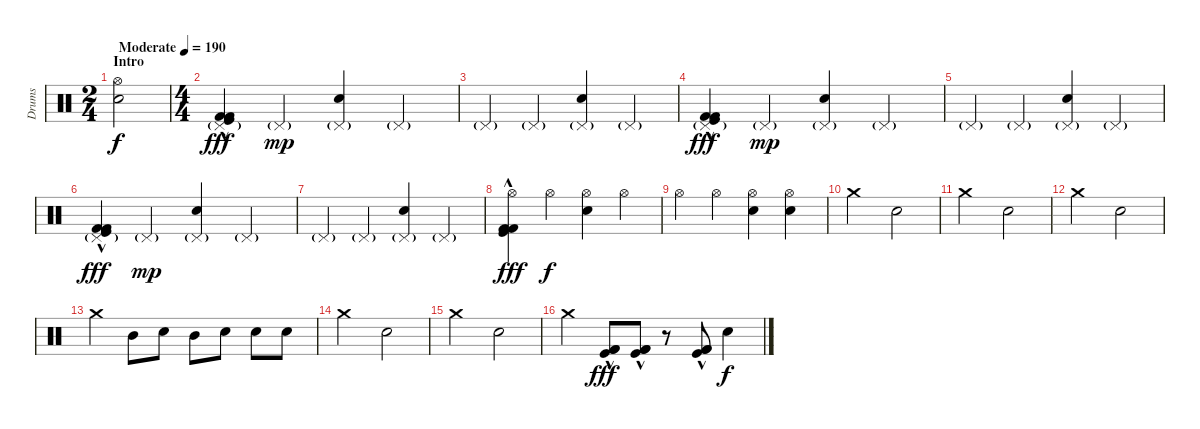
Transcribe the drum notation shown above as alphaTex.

\track ("Drums" "Drums") {instrument percussion}
\staff {score}
\articulation defaults
\ts (2 4)
\section ("" "Intro")
\tempo (190 "Moderate")
\clef neutral
\ks c
("Snare (hit) 2" "Hi-Hat (open)").2{dy f} |
\ts (4 4)
("Pedal Hi-Hat (hit)"{g} "Kick (hit) 2"{hac} "Kick (hit)"{hac} "Kick (hit) 2"{hac}).4{dy fff} "Pedal Hi-Hat (hit)"{g}.4{dy mp} ("Pedal Hi-Hat (hit)"{g} "Snare (hit) 2").4 "Pedal Hi-Hat (hit)"{g}.4 |
"Pedal Hi-Hat (hit)"{g}.4 "Pedal Hi-Hat (hit)"{g}.4 ("Pedal Hi-Hat (hit)"{g} "Snare (hit) 2").4 "Pedal Hi-Hat (hit)"{g}.4 |
("Pedal Hi-Hat (hit)"{g} "Kick (hit) 2"{hac} "Kick (hit)"{hac} "Kick (hit) 2"{hac}).4{dy fff} "Pedal Hi-Hat (hit)"{g}.4{dy mp} ("Pedal Hi-Hat (hit)"{g} "Snare (hit) 2").4 "Pedal Hi-Hat (hit)"{g}.4 |
"Pedal Hi-Hat (hit)"{g}.4 "Pedal Hi-Hat (hit)"{g}.4 ("Pedal Hi-Hat (hit)"{g} "Snare (hit) 2").4 "Pedal Hi-Hat (hit)"{g}.4 |
("Pedal Hi-Hat (hit)"{g} "Kick (hit) 2"{hac} "Kick (hit)"{hac} "Kick (hit) 2"{hac}).4{dy fff} "Pedal Hi-Hat (hit)"{g}.4{dy mp} ("Pedal Hi-Hat (hit)"{g} "Snare (hit) 2").4 "Pedal Hi-Hat (hit)"{g}.4 |
"Pedal Hi-Hat (hit)"{g}.4 "Pedal Hi-Hat (hit)"{g}.4 ("Pedal Hi-Hat (hit)"{g} "Snare (hit) 2").4 "Pedal Hi-Hat (hit)"{g}.4 |
("Hi-Hat (open)" "Kick (hit) 2"{hac} "Kick (hit)"{hac} "Kick (hit) 2"{hac}).4{dy fff} "Hi-Hat (open)".4{dy f} ("Hi-Hat (open)" "Snare (hit) 2").4 "Hi-Hat (open)".4 |
"Hi-Hat (open)".4 "Hi-Hat (open)".4 ("Hi-Hat (open)" "Snare (hit) 2").4 ("Hi-Hat (open)" "Snare (hit) 2").4 |
"Crash medium (hit)".2 "Snare (hit) 2".2 |
"Crash medium (hit)".2 "Snare (hit) 2".2 |
"Crash medium (hit)".2 "Snare (hit) 2".2 |
"Crash medium (hit)".4 "Mid Tom (hit)".8 "Snare (hit) 2".8 "Mid Tom (hit)".8 "Snare (hit) 2".8 "Snare (hit) 2".8 "Snare (hit) 2".8 |
"Crash medium (hit)".2 "Snare (hit) 2".2 |
"Crash medium (hit)".2 "Snare (hit) 2".2 |
"Crash medium (hit)".4 ("Kick (hit) 2"{hac} "Kick (hit)"{hac} "Kick (hit) 2"{hac}).8{dy fff} ("Kick (hit) 2"{hac} "Kick (hit)"{hac} "Kick (hit) 2"{hac}).8 r.8 ("Kick (hit) 2"{hac} "Kick (hit)"{hac} "Kick (hit) 2"{hac}).8 "Snare (hit) 2".4{dy f}
